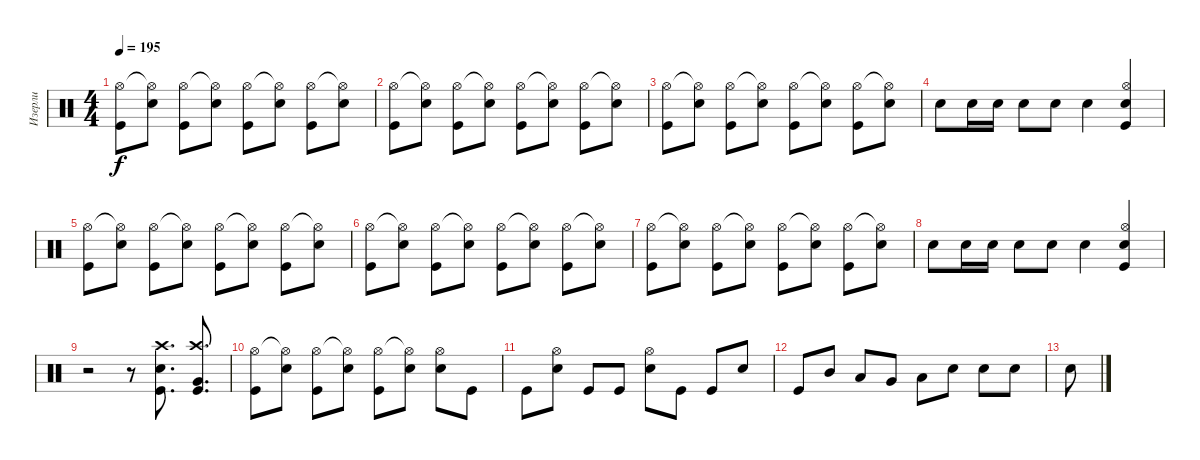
\track ("Изерли" "Изерли") {instrument percussion}
\staff {score}
\articulation defaults
\ts (4 4)
\tempo 195
\clef neutral
\ks c
("Kick (hit)" "Hi-Hat (open)").8{dy f balance 8} ("Snare (hit) 2" "Hi-Hat (open)"{t}).8 ("Kick (hit)" "Hi-Hat (open)").8 ("Snare (hit) 2" "Hi-Hat (open)"{t}).8 ("Kick (hit)" "Hi-Hat (open)").8 ("Snare (hit) 2" "Hi-Hat (open)"{t}).8 ("Kick (hit)" "Hi-Hat (open)").8 ("Snare (hit) 2" "Hi-Hat (open)"{t}).8 |
("Kick (hit)" "Hi-Hat (open)").8 ("Snare (hit) 2" "Hi-Hat (open)"{t}).8 ("Kick (hit)" "Hi-Hat (open)").8 ("Snare (hit) 2" "Hi-Hat (open)"{t}).8 ("Kick (hit)" "Hi-Hat (open)").8 ("Snare (hit) 2" "Hi-Hat (open)"{t}).8 ("Kick (hit)" "Hi-Hat (open)").8 ("Snare (hit) 2" "Hi-Hat (open)"{t}).8 |
("Kick (hit)" "Hi-Hat (open)").8{balance 8} ("Snare (hit) 2" "Hi-Hat (open)"{t}).8 ("Kick (hit)" "Hi-Hat (open)").8 ("Snare (hit) 2" "Hi-Hat (open)"{t}).8 ("Kick (hit)" "Hi-Hat (open)").8 ("Snare (hit) 2" "Hi-Hat (open)"{t}).8 ("Kick (hit)" "Hi-Hat (open)").8 ("Snare (hit) 2" "Hi-Hat (open)"{t}).8 |
"Snare (hit) 2".8 "Snare (hit) 2".16 "Snare (hit) 2".16 "Snare (hit) 2".8 "Snare (hit) 2".8 "Snare (hit) 2".4 ("Hi-Hat (open)" "Kick (hit)" "Snare (hit) 2").4{balance 6} |
("Kick (hit)" "Hi-Hat (open)").8{balance 8} ("Snare (hit) 2" "Hi-Hat (open)"{t}).8 ("Kick (hit)" "Hi-Hat (open)").8 ("Snare (hit) 2" "Hi-Hat (open)"{t}).8 ("Kick (hit)" "Hi-Hat (open)").8 ("Snare (hit) 2" "Hi-Hat (open)"{t}).8 ("Kick (hit)" "Hi-Hat (open)").8 ("Snare (hit) 2" "Hi-Hat (open)"{t}).8 |
("Kick (hit)" "Hi-Hat (open)").8 ("Snare (hit) 2" "Hi-Hat (open)"{t}).8 ("Kick (hit)" "Hi-Hat (open)").8 ("Snare (hit) 2" "Hi-Hat (open)"{t}).8 ("Kick (hit)" "Hi-Hat (open)").8 ("Snare (hit) 2" "Hi-Hat (open)"{t}).8 ("Kick (hit)" "Hi-Hat (open)").8 ("Snare (hit) 2" "Hi-Hat (open)"{t}).8 |
("Kick (hit)" "Hi-Hat (open)").8{balance 8} ("Snare (hit) 2" "Hi-Hat (open)"{t}).8 ("Kick (hit)" "Hi-Hat (open)").8 ("Snare (hit) 2" "Hi-Hat (open)"{t}).8 ("Kick (hit)" "Hi-Hat (open)").8 ("Snare (hit) 2" "Hi-Hat (open)"{t}).8 ("Kick (hit)" "Hi-Hat (open)").8 ("Snare (hit) 2" "Hi-Hat (open)"{t}).8 |
"Snare (hit) 2".8 "Snare (hit) 2".16 "Snare (hit) 2".16 "Snare (hit) 2".8 "Snare (hit) 2".8 "Snare (hit) 2".4 ("Hi-Hat (open)" "Kick (hit)" "Snare (hit) 2").4{balance 6} |
r.2 r.8 ("Snare (hit) 2" "Kick (hit)" "Crash high (hit)").8{d} ("Kick (hit)" "Crash high (hit)" "Very Low Tom (hit)").8{d} |
("Kick (hit)" "Hi-Hat (open)").8{balance 8} ("Snare (hit) 2" "Hi-Hat (open)"{t}).8 ("Kick (hit)" "Hi-Hat (open)").8 ("Snare (hit) 2" "Hi-Hat (open)"{t}).8 ("Kick (hit)" "Hi-Hat (open)").8 ("Snare (hit) 2" "Hi-Hat (open)"{t}).8 ("Snare (hit) 2" "Hi-Hat (open)").8 "Kick (hit)".8 |
"Kick (hit)".8 ("Snare (hit) 2" "Hi-Hat (open)").8 "Kick (hit)".8 "Kick (hit)".8 ("Snare (hit) 2" "Hi-Hat (open)").8 "Kick (hit)".8 "Kick (hit)".8 "Snare (hit) 2".8 |
"Kick (hit)".8 "Mid Tom (hit)".8 "Low Tom (hit)".8 "Very Low Tom (hit)".8 "Low Floor Tom (hit)".8 "Snare (hit) 2".8 "Snare (hit) 2".8 "Snare (hit) 2".8 |
"Snare (hit) 2".8
